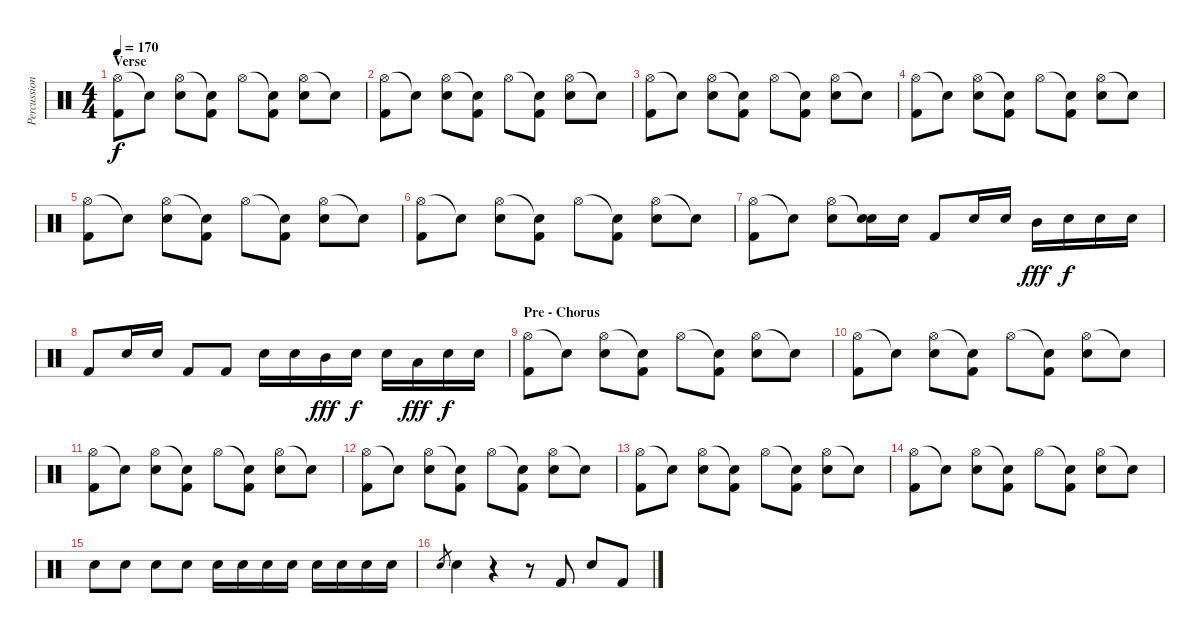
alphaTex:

\track ("Percussions" "Percussion") {instrument percussion}
\staff {score}
\articulation defaults
\ts (4 4)
\section ("" "Verse")
\tempo 170
\clef neutral
\ks c
("Hi-Hat (open)" "Kick (hit) 2").8{dy f} "Snare (hit)"{t}.8 ("Hi-Hat (open)" "Snare (hit) 2").8 ("Snare (hit)"{t} "Kick (hit) 2").8 "Hi-Hat (open)".8 ("Snare (hit)"{t} "Kick (hit) 2").8 ("Hi-Hat (open)" "Snare (hit) 2").8 "Snare (hit)"{t}.8 |
("Hi-Hat (open)" "Kick (hit) 2").8 "Snare (hit)"{t}.8 ("Hi-Hat (open)" "Snare (hit) 2").8 ("Snare (hit)"{t} "Kick (hit) 2").8 "Hi-Hat (open)".8 ("Snare (hit)"{t} "Kick (hit) 2").8 ("Hi-Hat (open)" "Snare (hit) 2").8 "Snare (hit)"{t}.8 |
("Hi-Hat (open)" "Kick (hit) 2").8 "Snare (hit)"{t}.8 ("Hi-Hat (open)" "Snare (hit) 2").8 ("Snare (hit)"{t} "Kick (hit) 2").8 "Hi-Hat (open)".8 ("Snare (hit)"{t} "Kick (hit) 2").8 ("Hi-Hat (open)" "Snare (hit) 2").8 "Snare (hit)"{t}.8 |
("Hi-Hat (open)" "Kick (hit) 2").8 "Snare (hit)"{t}.8 ("Hi-Hat (open)" "Snare (hit) 2").8 ("Snare (hit)"{t} "Kick (hit) 2").8 "Hi-Hat (open)".8 ("Snare (hit)"{t} "Kick (hit) 2").8 ("Hi-Hat (open)" "Snare (hit) 2").8 "Snare (hit)"{t}.8 |
("Hi-Hat (open)" "Kick (hit) 2").8 "Snare (hit)"{t}.8 ("Hi-Hat (open)" "Snare (hit) 2").8 ("Snare (hit)"{t} "Kick (hit) 2").8 "Hi-Hat (open)".8 ("Snare (hit)"{t} "Kick (hit) 2").8 ("Hi-Hat (open)" "Snare (hit) 2").8 "Snare (hit)"{t}.8 |
("Hi-Hat (open)" "Kick (hit) 2").8 "Snare (hit)"{t}.8 ("Hi-Hat (open)" "Snare (hit) 2").8 ("Snare (hit)"{t} "Kick (hit) 2").8 "Hi-Hat (open)".8 ("Snare (hit)"{t} "Kick (hit) 2").8 ("Hi-Hat (open)" "Snare (hit) 2").8 "Snare (hit)"{t}.8 |
("Hi-Hat (open)" "Kick (hit) 2").8 "Snare (hit)"{t}.8 ("Hi-Hat (open)" "Snare (hit) 2").8 ("Snare (hit)"{t} "Snare (hit) 2").16 "Snare (hit) 2".16 "Kick (hit) 2".8 "Snare (hit) 2".16 "Snare (hit) 2".16 "Mid Tom (hit)".16{dy fff} "Snare (hit) 2".16{dy f} "Snare (hit) 2".16 "Snare (hit) 2".16 |
"Kick (hit) 2".8 "Snare (hit) 2".16 "Snare (hit) 2".16 "Kick (hit) 2".8 "Kick (hit) 2".8 "Snare (hit) 2".16 "Snare (hit) 2".16 "Mid Tom (hit)".16{dy fff} "Snare (hit) 2".16{dy f} "Snare (hit) 2".16 "Low Tom (hit)".16{dy fff} "Snare (hit) 2".16{dy f} "Snare (hit) 2".16 |
\section ("" "Pre - Chorus")
("Hi-Hat (open)" "Kick (hit) 2").8 "Snare (hit)"{t}.8 ("Hi-Hat (open)" "Snare (hit) 2").8 ("Snare (hit)"{t} "Kick (hit) 2").8 "Hi-Hat (open)".8 ("Snare (hit)"{t} "Kick (hit) 2").8 ("Hi-Hat (open)" "Snare (hit) 2").8 "Snare (hit)"{t}.8 |
("Hi-Hat (open)" "Kick (hit) 2").8 "Snare (hit)"{t}.8 ("Hi-Hat (open)" "Snare (hit) 2").8 ("Snare (hit)"{t} "Kick (hit) 2").8 "Hi-Hat (open)".8 ("Snare (hit)"{t} "Kick (hit) 2").8 ("Hi-Hat (open)" "Snare (hit) 2").8 "Snare (hit)"{t}.8 |
("Hi-Hat (open)" "Kick (hit) 2").8 "Snare (hit)"{t}.8 ("Hi-Hat (open)" "Snare (hit) 2").8 ("Snare (hit)"{t} "Kick (hit) 2").8 "Hi-Hat (open)".8 ("Snare (hit)"{t} "Kick (hit) 2").8 ("Hi-Hat (open)" "Snare (hit) 2").8 "Snare (hit)"{t}.8 |
("Hi-Hat (open)" "Kick (hit) 2").8 "Snare (hit)"{t}.8 ("Hi-Hat (open)" "Snare (hit) 2").8 ("Snare (hit)"{t} "Kick (hit) 2").8 "Hi-Hat (open)".8 ("Snare (hit)"{t} "Kick (hit) 2").8 ("Hi-Hat (open)" "Snare (hit) 2").8 "Snare (hit)"{t}.8 |
("Hi-Hat (open)" "Kick (hit) 2").8 "Snare (hit)"{t}.8 ("Hi-Hat (open)" "Snare (hit) 2").8 ("Snare (hit)"{t} "Kick (hit) 2").8 "Hi-Hat (open)".8 ("Snare (hit)"{t} "Kick (hit) 2").8 ("Hi-Hat (open)" "Snare (hit) 2").8 "Snare (hit)"{t}.8 |
("Hi-Hat (open)" "Kick (hit) 2").8 "Snare (hit)"{t}.8 ("Hi-Hat (open)" "Snare (hit) 2").8 ("Snare (hit)"{t} "Kick (hit) 2").8 "Hi-Hat (open)".8 ("Snare (hit)"{t} "Kick (hit) 2").8 ("Hi-Hat (open)" "Snare (hit) 2").8 "Snare (hit)"{t}.8 |
"Snare (hit) 2".8 "Snare (hit) 2".8 "Snare (hit) 2".8 "Snare (hit) 2".8 "Snare (hit) 2".16 "Snare (hit) 2".16 "Snare (hit) 2".16 "Snare (hit) 2".16 "Snare (hit) 2".16 "Snare (hit) 2".16 "Snare (hit) 2".16 "Snare (hit) 2".16 |
"Snare (hit) 2".8{gr} "Snare (hit) 2".4 r.4 r.8 "Kick (hit) 2".8 "Snare (hit) 2".8 "Kick (hit) 2".8
